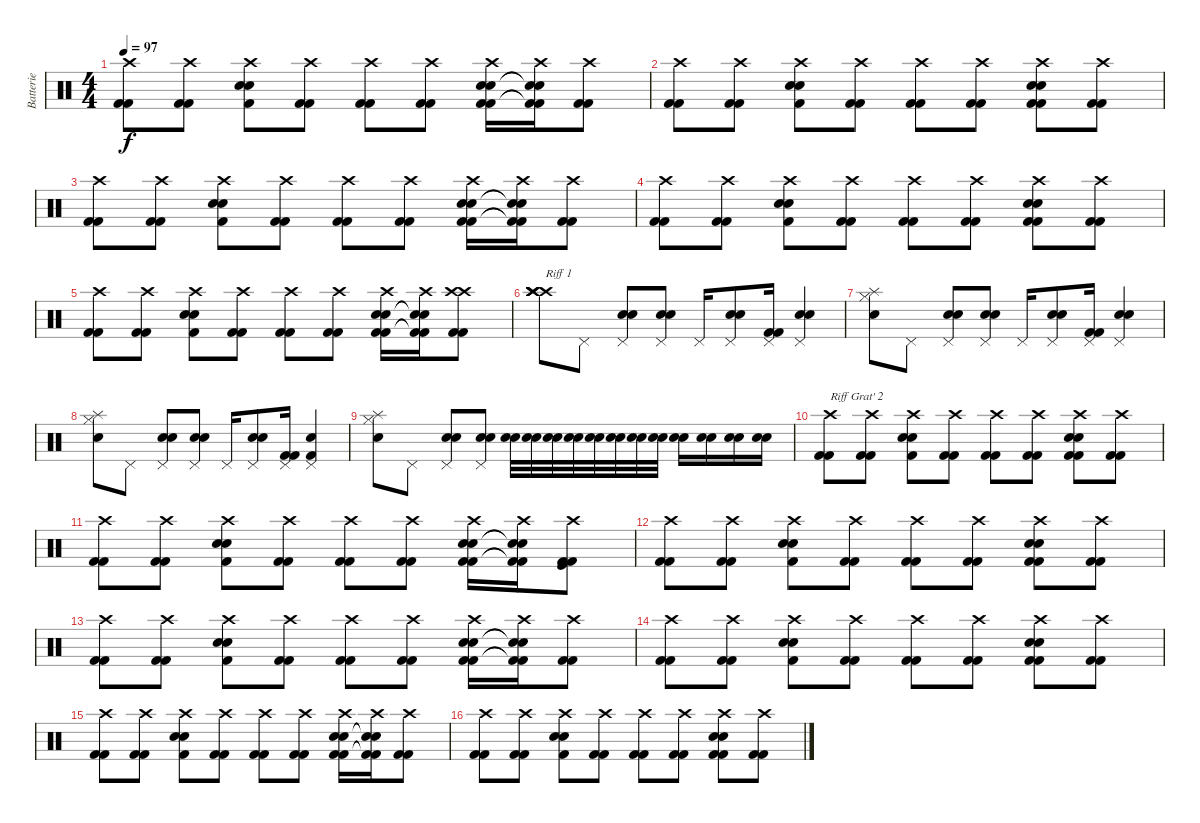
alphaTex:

\track ("Batterie" "Batterie") {instrument percussion}
\staff {score}
\articulation defaults
\ts (4 4)
\tempo 97
\clef neutral
\ks c
("Crash high (hit)" "Kick (hit) 2" "Kick (hit) 2").8{dy f} ("Crash high (hit)" "Kick (hit) 2" "Kick (hit) 2").8 ("Crash high (hit)" "Snare (hit) 2" "Snare (hit) 2" "Kick (hit) 2").8 ("Crash high (hit)" "Kick (hit) 2" "Kick (hit) 2").8 ("Crash high (hit)" "Kick (hit) 2" "Kick (hit) 2").8 ("Crash high (hit)" "Kick (hit) 2" "Kick (hit) 2").8 ("Crash high (hit)" "Snare (hit) 2" "Snare (hit) 2" "Kick (hit) 2" "Kick (hit) 2").16 ("Crash high (hit)" "Snare (hit) 2"{t} "Snare (hit) 2"{t} "Kick (hit) 2"{t} "Kick (hit) 2"{t}).16 ("Crash high (hit)" "Kick (hit) 2" "Kick (hit) 2").8 |
("Crash high (hit)" "Kick (hit) 2" "Kick (hit) 2").8 ("Crash high (hit)" "Kick (hit) 2" "Kick (hit) 2").8 ("Crash high (hit)" "Snare (hit) 2" "Snare (hit) 2" "Kick (hit) 2").8 ("Crash high (hit)" "Kick (hit) 2" "Kick (hit) 2").8 ("Crash high (hit)" "Kick (hit) 2" "Kick (hit) 2").8 ("Crash high (hit)" "Kick (hit) 2" "Kick (hit) 2").8 ("Crash high (hit)" "Snare (hit) 2" "Snare (hit) 2" "Kick (hit) 2" "Kick (hit) 2").8 ("Crash high (hit)" "Kick (hit) 2" "Kick (hit) 2").8 |
("Crash high (hit)" "Kick (hit) 2" "Kick (hit) 2").8 ("Crash high (hit)" "Kick (hit) 2" "Kick (hit) 2").8 ("Crash high (hit)" "Snare (hit) 2" "Snare (hit) 2" "Kick (hit) 2").8 ("Crash high (hit)" "Kick (hit) 2" "Kick (hit) 2").8 ("Crash high (hit)" "Kick (hit) 2" "Kick (hit) 2").8 ("Crash high (hit)" "Kick (hit) 2" "Kick (hit) 2").8 ("Crash high (hit)" "Snare (hit) 2" "Snare (hit) 2" "Kick (hit) 2" "Kick (hit) 2").16 ("Crash high (hit)" "Snare (hit) 2"{t} "Snare (hit) 2"{t} "Kick (hit) 2"{t} "Kick (hit) 2"{t}).16 ("Crash high (hit)" "Kick (hit) 2" "Kick (hit) 2").8 |
("Crash high (hit)" "Kick (hit) 2" "Kick (hit) 2").8 ("Crash high (hit)" "Kick (hit) 2" "Kick (hit) 2").8 ("Crash high (hit)" "Snare (hit) 2" "Snare (hit) 2" "Kick (hit) 2").8 ("Crash high (hit)" "Kick (hit) 2" "Kick (hit) 2").8 ("Crash high (hit)" "Kick (hit) 2" "Kick (hit) 2").8 ("Crash high (hit)" "Kick (hit) 2" "Kick (hit) 2").8 ("Crash high (hit)" "Snare (hit) 2" "Snare (hit) 2" "Kick (hit) 2" "Kick (hit) 2").8 ("Crash high (hit)" "Kick (hit) 2" "Kick (hit) 2").8 |
("Crash high (hit)" "Kick (hit) 2" "Kick (hit) 2").8 ("Crash high (hit)" "Kick (hit) 2" "Kick (hit) 2").8 ("Crash high (hit)" "Snare (hit) 2" "Snare (hit) 2" "Kick (hit) 2").8 ("Crash high (hit)" "Kick (hit) 2" "Kick (hit) 2").8 ("Crash high (hit)" "Kick (hit) 2" "Kick (hit) 2").8 ("Crash high (hit)" "Kick (hit) 2" "Kick (hit) 2").8 ("Crash high (hit)" "Snare (hit) 2" "Snare (hit) 2" "Kick (hit) 2" "Kick (hit) 2").16 ("Crash high (hit)" "Snare (hit) 2"{t} "Snare (hit) 2"{t} "Kick (hit) 2"{t} "Kick (hit) 2"{t}).16 ("Crash high (hit)" "Crash high (hit)" "Kick (hit) 2" "Kick (hit) 2").8 |
("Crash high (hit)" "Crash high (hit)" "Crash high (hit)" "Crash high (hit)").8{txt "Riff 1"} "Pedal Hi-Hat (hit)".8 ("Pedal Hi-Hat (hit)" "Snare (hit) 2" "Snare (hit) 2").8 ("Pedal Hi-Hat (hit)" "Snare (hit) 2" "Snare (hit) 2").8 "Pedal Hi-Hat (hit)".16 ("Pedal Hi-Hat (hit)" "Snare (hit) 2" "Snare (hit) 2").8 ("Pedal Hi-Hat (hit)" "Kick (hit) 2" "Kick (hit) 2").16 ("Pedal Hi-Hat (hit)" "Snare (hit) 2" "Snare (hit) 2").4 |
("Splash (hit)" "Snare (hit) 2" "Hi-Hat (closed)").8 "Pedal Hi-Hat (hit)".8 ("Pedal Hi-Hat (hit)" "Snare (hit) 2" "Snare (hit) 2").8 ("Pedal Hi-Hat (hit)" "Snare (hit) 2" "Snare (hit) 2").8 "Pedal Hi-Hat (hit)".16 ("Pedal Hi-Hat (hit)" "Snare (hit) 2" "Snare (hit) 2").8 ("Pedal Hi-Hat (hit)" "Kick (hit) 2" "Kick (hit) 2").16 ("Pedal Hi-Hat (hit)" "Snare (hit) 2" "Snare (hit) 2").4 |
("Splash (hit)" "Snare (hit) 2" "Hi-Hat (closed)").8 "Pedal Hi-Hat (hit)".8 ("Pedal Hi-Hat (hit)" "Snare (hit) 2" "Snare (hit) 2").8 ("Pedal Hi-Hat (hit)" "Snare (hit) 2" "Snare (hit) 2").8 "Pedal Hi-Hat (hit)".16 ("Pedal Hi-Hat (hit)" "Snare (hit) 2" "Snare (hit) 2").8 ("Pedal Hi-Hat (hit)" "Kick (hit) 2" "Kick (hit) 2").16 ("Pedal Hi-Hat (hit)" "Kick (hit) 2" "Snare (hit) 2").4 |
("Splash (hit)" "Snare (hit) 2" "Hi-Hat (closed)").8 "Pedal Hi-Hat (hit)".8 ("Pedal Hi-Hat (hit)" "Snare (hit) 2" "Snare (hit) 2").8 ("Pedal Hi-Hat (hit)" "Snare (hit) 2" "Snare (hit) 2").8 ("Snare (hit) 2" "Snare (hit) 2").32 ("Snare (hit) 2" "Snare (hit) 2").32 ("Snare (hit) 2" "Snare (hit) 2").32 ("Snare (hit) 2" "Snare (hit) 2").32 ("Snare (hit) 2" "Snare (hit) 2").32 ("Snare (hit) 2" "Snare (hit) 2").32 ("Snare (hit) 2" "Snare (hit) 2").32 ("Snare (hit) 2" "Snare (hit) 2").32 ("Snare (hit) 2" "Snare (hit) 2").16 ("Snare (hit) 2" "Snare (hit) 2").16 ("Snare (hit) 2" "Snare (hit) 2").16 ("Snare (hit) 2" "Snare (hit) 2").16 |
("Crash high (hit)" "Kick (hit) 2" "Kick (hit) 2").8{txt "Riff Grat' 2"} ("Crash high (hit)" "Kick (hit) 2" "Kick (hit) 2").8 ("Crash high (hit)" "Snare (hit) 2" "Snare (hit) 2" "Kick (hit) 2").8 ("Crash high (hit)" "Kick (hit) 2" "Kick (hit) 2").8 ("Crash high (hit)" "Kick (hit) 2" "Kick (hit) 2").8 ("Crash high (hit)" "Kick (hit) 2" "Kick (hit) 2").8 ("Crash high (hit)" "Snare (hit) 2" "Snare (hit) 2" "Kick (hit) 2" "Kick (hit) 2").8 ("Crash high (hit)" "Kick (hit) 2" "Kick (hit) 2").8 |
("Crash high (hit)" "Kick (hit) 2" "Kick (hit) 2").8 ("Crash high (hit)" "Kick (hit) 2" "Kick (hit) 2").8 ("Crash high (hit)" "Snare (hit) 2" "Snare (hit) 2" "Kick (hit) 2").8 ("Crash high (hit)" "Kick (hit) 2" "Kick (hit) 2").8 ("Crash high (hit)" "Kick (hit) 2" "Kick (hit) 2").8 ("Crash high (hit)" "Kick (hit) 2" "Kick (hit) 2").8 ("Crash high (hit)" "Snare (hit) 2" "Snare (hit) 2" "Kick (hit) 2" "Kick (hit) 2").16 ("Crash high (hit)" "Snare (hit) 2"{t} "Snare (hit) 2"{t} "Kick (hit) 2"{t} "Kick (hit) 2"{t}).16 ("Crash high (hit)" "Kick (hit) 2" "Kick (hit) 2" "Kick (hit)").8 |
("Crash high (hit)" "Kick (hit) 2" "Kick (hit) 2").8 ("Crash high (hit)" "Kick (hit) 2" "Kick (hit) 2").8 ("Crash high (hit)" "Snare (hit) 2" "Snare (hit) 2" "Kick (hit) 2").8 ("Crash high (hit)" "Kick (hit) 2" "Kick (hit) 2").8 ("Crash high (hit)" "Kick (hit) 2" "Kick (hit) 2").8 ("Crash high (hit)" "Kick (hit) 2" "Kick (hit) 2").8 ("Crash high (hit)" "Snare (hit) 2" "Snare (hit) 2" "Kick (hit) 2" "Kick (hit) 2").8 ("Crash high (hit)" "Kick (hit) 2" "Kick (hit) 2").8 |
("Crash high (hit)" "Kick (hit) 2" "Kick (hit) 2").8 ("Crash high (hit)" "Kick (hit) 2" "Kick (hit) 2").8 ("Crash high (hit)" "Snare (hit) 2" "Snare (hit) 2" "Kick (hit) 2").8 ("Crash high (hit)" "Kick (hit) 2" "Kick (hit) 2").8 ("Crash high (hit)" "Kick (hit) 2" "Kick (hit) 2").8 ("Crash high (hit)" "Kick (hit) 2" "Kick (hit) 2").8 ("Crash high (hit)" "Snare (hit) 2" "Snare (hit) 2" "Kick (hit) 2" "Kick (hit) 2").16 ("Crash high (hit)" "Snare (hit) 2"{t} "Snare (hit) 2"{t} "Kick (hit) 2"{t} "Kick (hit) 2"{t}).16 ("Crash high (hit)" "Kick (hit) 2" "Kick (hit) 2").8 |
("Crash high (hit)" "Kick (hit) 2" "Kick (hit) 2").8 ("Crash high (hit)" "Kick (hit) 2" "Kick (hit) 2").8 ("Crash high (hit)" "Snare (hit) 2" "Snare (hit) 2" "Kick (hit) 2").8 ("Crash high (hit)" "Kick (hit) 2" "Kick (hit) 2").8 ("Crash high (hit)" "Kick (hit) 2" "Kick (hit) 2").8 ("Crash high (hit)" "Kick (hit) 2" "Kick (hit) 2").8 ("Crash high (hit)" "Snare (hit) 2" "Snare (hit) 2" "Kick (hit) 2" "Kick (hit) 2").8 ("Crash high (hit)" "Kick (hit) 2" "Kick (hit) 2").8 |
("Crash high (hit)" "Kick (hit) 2" "Kick (hit) 2").8 ("Crash high (hit)" "Kick (hit) 2" "Kick (hit) 2").8 ("Crash high (hit)" "Snare (hit) 2" "Snare (hit) 2" "Kick (hit) 2").8 ("Crash high (hit)" "Kick (hit) 2" "Kick (hit) 2").8 ("Crash high (hit)" "Kick (hit) 2" "Kick (hit) 2").8 ("Crash high (hit)" "Kick (hit) 2" "Kick (hit) 2").8 ("Crash high (hit)" "Snare (hit) 2" "Snare (hit) 2" "Kick (hit) 2" "Kick (hit) 2").16 ("Crash high (hit)" "Snare (hit) 2"{t} "Snare (hit) 2"{t} "Kick (hit) 2"{t} "Kick (hit) 2"{t}).16 ("Crash high (hit)" "Kick (hit) 2" "Kick (hit) 2").8 |
("Crash high (hit)" "Kick (hit) 2" "Kick (hit) 2").8 ("Crash high (hit)" "Kick (hit) 2" "Kick (hit) 2").8 ("Crash high (hit)" "Snare (hit) 2" "Snare (hit) 2" "Kick (hit) 2").8 ("Crash high (hit)" "Kick (hit) 2" "Kick (hit) 2").8 ("Crash high (hit)" "Kick (hit) 2" "Kick (hit) 2").8 ("Crash high (hit)" "Kick (hit) 2" "Kick (hit) 2").8 ("Crash high (hit)" "Snare (hit) 2" "Snare (hit) 2" "Kick (hit) 2" "Kick (hit) 2").8 ("Crash high (hit)" "Kick (hit) 2" "Kick (hit) 2").8
